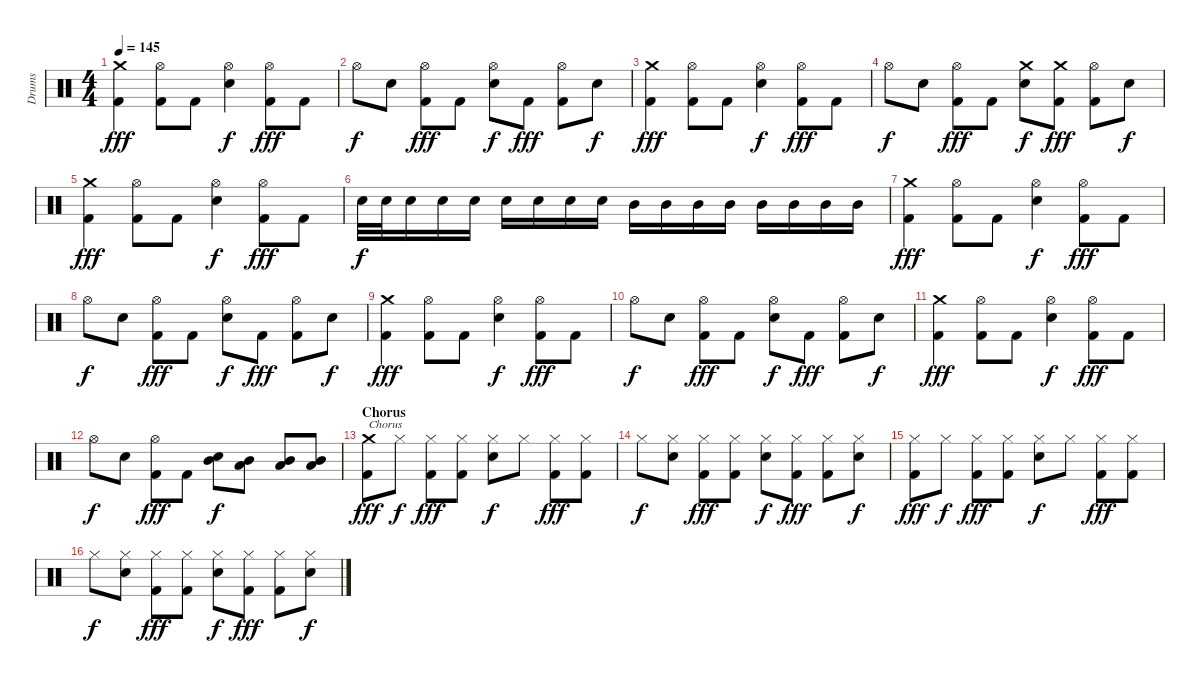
\track ("Drums" "Drums") {instrument percussion}
\staff {score}
\articulation defaults
\ts (4 4)
\tempo 145
\clef neutral
\ks c
("Crash medium (hit)" "Kick (hit) 2").4{dy fff} ("Hi-Hat (open)" "Kick (hit) 2").8 "Kick (hit) 2".8 ("Hi-Hat (open)" "Snare (hit) 2").4{dy f} ("Hi-Hat (open)" "Kick (hit) 2").8{dy fff} "Kick (hit) 2".8 |
"Hi-Hat (open)".8{dy f} "Snare (hit) 2".8 ("Hi-Hat (open)" "Kick (hit) 2").8{dy fff} "Kick (hit) 2".8 ("Hi-Hat (open)" "Snare (hit) 2").8{dy f} "Kick (hit) 2".8{dy fff} ("Hi-Hat (open)" "Kick (hit) 2").8 "Snare (hit) 2".8{dy f} |
("Crash medium (hit)" "Kick (hit) 2").4{dy fff} ("Hi-Hat (open)" "Kick (hit) 2").8 "Kick (hit) 2".8 ("Hi-Hat (open)" "Snare (hit) 2").4{dy f} ("Hi-Hat (open)" "Kick (hit) 2").8{dy fff} "Kick (hit) 2".8 |
"Hi-Hat (open)".8{dy f} "Snare (hit) 2".8 ("Hi-Hat (open)" "Kick (hit) 2").8{dy fff} "Kick (hit) 2".8 ("Crash medium (hit)" "Snare (hit) 2").8{dy f} ("Crash medium (hit)" "Kick (hit) 2").8{dy fff} ("Hi-Hat (open)" "Kick (hit) 2").8 "Snare (hit) 2".8{dy f} |
("Crash medium (hit)" "Kick (hit) 2").4{dy fff} ("Hi-Hat (open)" "Kick (hit) 2").8 "Kick (hit) 2".8 ("Hi-Hat (open)" "Snare (hit) 2").4{dy f} ("Hi-Hat (open)" "Kick (hit) 2").8{dy fff} "Kick (hit) 2".8 |
"Snare (hit) 2".32{dy f} "Snare (hit) 2".32 "Snare (hit) 2".16 "Snare (hit) 2".16 "Snare (hit) 2".16 "Snare (hit) 2".16 "Snare (hit) 2".16 "Snare (hit) 2".16 "Snare (hit) 2".16 "Mid Tom (hit)".16 "Mid Tom (hit)".16 "Mid Tom (hit)".16 "Mid Tom (hit)".16 "Mid Tom (hit)".16 "Mid Tom (hit)".16 "Mid Tom (hit)".16 "Mid Tom (hit)".16 |
("Crash medium (hit)" "Kick (hit) 2").4{dy fff} ("Hi-Hat (open)" "Kick (hit) 2").8 "Kick (hit) 2".8 ("Hi-Hat (open)" "Snare (hit) 2").4{dy f} ("Hi-Hat (open)" "Kick (hit) 2").8{dy fff} "Kick (hit) 2".8 |
"Hi-Hat (open)".8{dy f} "Snare (hit) 2".8 ("Hi-Hat (open)" "Kick (hit) 2").8{dy fff} "Kick (hit) 2".8 ("Hi-Hat (open)" "Snare (hit) 2").8{dy f} "Kick (hit) 2".8{dy fff} ("Hi-Hat (open)" "Kick (hit) 2").8 "Snare (hit) 2".8{dy f} |
("Crash medium (hit)" "Kick (hit) 2").4{dy fff} ("Hi-Hat (open)" "Kick (hit) 2").8 "Kick (hit) 2".8 ("Hi-Hat (open)" "Snare (hit) 2").4{dy f} ("Hi-Hat (open)" "Kick (hit) 2").8{dy fff} "Kick (hit) 2".8 |
"Hi-Hat (open)".8{dy f} "Snare (hit) 2".8 ("Hi-Hat (open)" "Kick (hit) 2").8{dy fff} "Kick (hit) 2".8 ("Hi-Hat (open)" "Snare (hit) 2").8{dy f} "Kick (hit) 2".8{dy fff} ("Hi-Hat (open)" "Kick (hit) 2").8 "Snare (hit) 2".8{dy f} |
("Crash medium (hit)" "Kick (hit) 2").4{dy fff} ("Hi-Hat (open)" "Kick (hit) 2").8 "Kick (hit) 2".8 ("Hi-Hat (open)" "Snare (hit) 2").4{dy f} ("Hi-Hat (open)" "Kick (hit) 2").8{dy fff} "Kick (hit) 2".8 |
"Hi-Hat (open)".8{dy f} "Snare (hit) 2".8 ("Hi-Hat (open)" "Kick (hit) 2").8{dy fff} "Kick (hit) 2".8 ("Snare (hit) 2" "Mid Tom (hit)").8{dy f} ("Mid Tom (hit)" "Low Tom (hit)").8 ("Mid Tom (hit)" "Low Tom (hit)").8 ("Mid Tom (hit)" "Low Tom (hit)").8 |
\section ("" "Chorus")
("Crash medium (hit)" "Kick (hit) 2").8{txt "Chorus" dy fff} "Hi-Hat (closed)".8{dy f} ("Hi-Hat (closed)" "Kick (hit) 2").8{dy fff} ("Hi-Hat (closed)" "Kick (hit) 2").8 ("Hi-Hat (closed)" "Snare (hit) 2").8{dy f} "Hi-Hat (closed)".8 ("Hi-Hat (closed)" "Kick (hit) 2").8{dy fff} ("Hi-Hat (closed)" "Kick (hit) 2").8 |
"Hi-Hat (closed)".8{dy f} ("Hi-Hat (closed)" "Snare (hit) 2").8 ("Hi-Hat (closed)" "Kick (hit) 2").8{dy fff} ("Hi-Hat (closed)" "Kick (hit) 2").8 ("Hi-Hat (closed)" "Snare (hit) 2").8{dy f} ("Hi-Hat (closed)" "Kick (hit) 2").8{dy fff} ("Hi-Hat (closed)" "Kick (hit) 2").8 ("Hi-Hat (closed)" "Snare (hit) 2").8{dy f} |
("Hi-Hat (closed)" "Kick (hit) 2").8{dy fff} "Hi-Hat (closed)".8{dy f} ("Hi-Hat (closed)" "Kick (hit) 2").8{dy fff} ("Hi-Hat (closed)" "Kick (hit) 2").8 ("Hi-Hat (closed)" "Snare (hit) 2").8{dy f} "Hi-Hat (closed)".8 ("Hi-Hat (closed)" "Kick (hit) 2").8{dy fff} ("Hi-Hat (closed)" "Kick (hit) 2").8 |
"Hi-Hat (closed)".8{dy f} ("Hi-Hat (closed)" "Snare (hit) 2").8 ("Hi-Hat (closed)" "Kick (hit) 2").8{dy fff} ("Hi-Hat (closed)" "Kick (hit) 2").8 ("Hi-Hat (closed)" "Snare (hit) 2").8{dy f} ("Hi-Hat (closed)" "Kick (hit) 2").8{dy fff} ("Hi-Hat (closed)" "Kick (hit) 2").8 ("Hi-Hat (closed)" "Snare (hit) 2").8{dy f}
